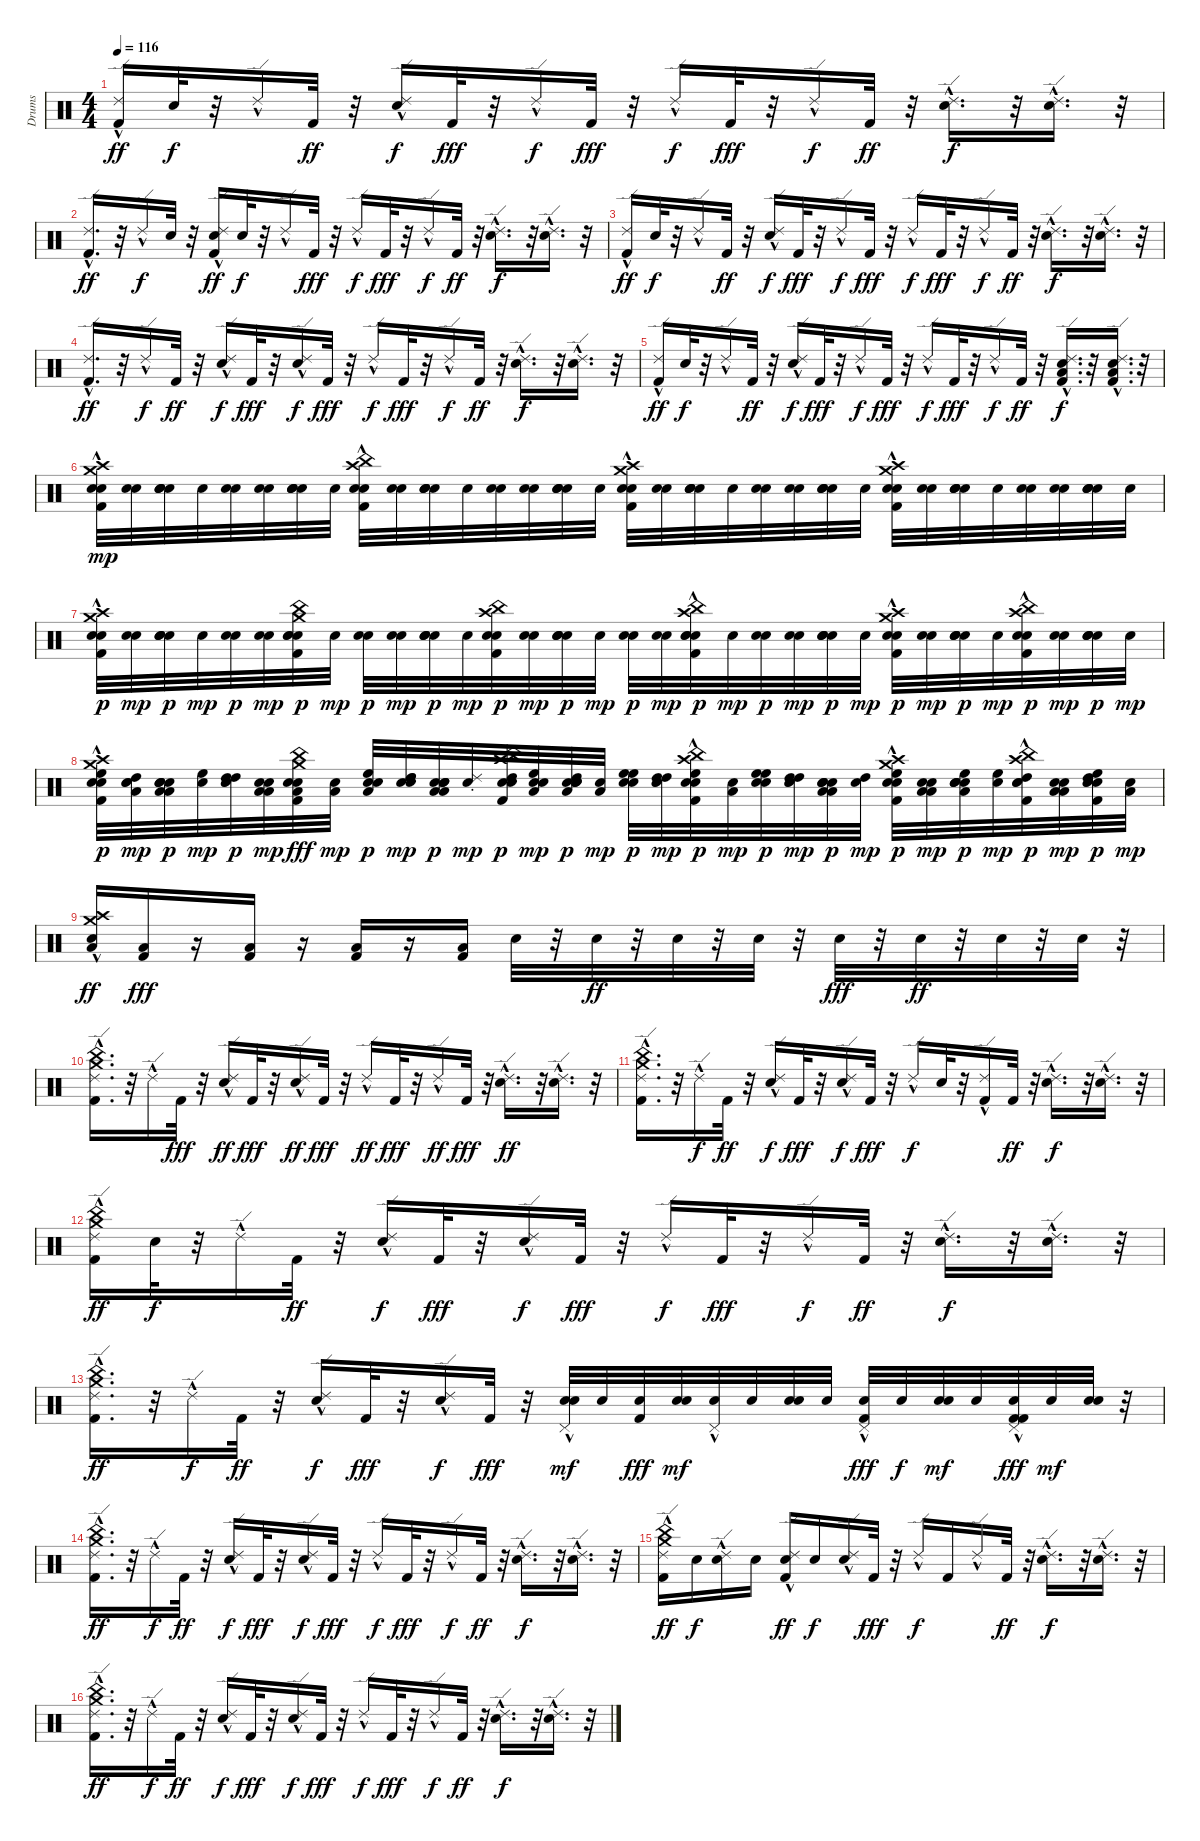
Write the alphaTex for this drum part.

\track ("Drums" "Drums") {instrument percussion}
\staff {score}
\articulation defaults
\ts (4 4)
\tempo 116
\clef neutral
\ks c
("Kick (hit) 2"{hac} "Ride (edge) 2"{hac}).16{dy ff} "Electric Snare (hit)".32{dy f} r.32 "Ride (edge) 2"{hac}.16 "Kick (hit) 2".32{dy ff} r.32 ("Electric Snare (hit)" "Ride (edge) 2"{hac}).16{dy f} "Kick (hit) 2".32{dy fff} r.32 "Ride (edge) 2"{hac}.16{dy f} "Kick (hit) 2".32{dy fff} r.32 "Ride (edge) 2"{hac}.16{dy f} "Kick (hit) 2".32{dy fff} r.32 "Ride (edge) 2"{hac}.16{dy f} "Kick (hit) 2".32{dy ff} r.32 ("Electric Snare (hit)" "Ride (edge) 2"{hac}).16{d dy f} r.32 ("Electric Snare (hit)" "Ride (edge) 2"{hac}).16{d} r.32 |
("Kick (hit) 2"{hac} "Ride (edge) 2"{hac}).16{d dy ff} r.32 "Ride (edge) 2"{hac}.16{dy f} "Electric Snare (hit)".32 r.32 ("Kick (hit) 2" "Electric Snare (hit)" "Ride (edge) 2"{hac}).16{dy ff} "Electric Snare (hit)".32{dy f} r.32 "Ride (edge) 2"{hac}.16 "Kick (hit) 2".32{dy fff} r.32 "Ride (edge) 2"{hac}.16{dy f} "Kick (hit) 2".32{dy fff} r.32 "Ride (edge) 2"{hac}.16{dy f} "Kick (hit) 2".32{dy ff} r.32 ("Electric Snare (hit)" "Ride (edge) 2"{hac}).16{d dy f} r.32 ("Electric Snare (hit)" "Ride (edge) 2"{hac}).16{d} r.32 |
("Kick (hit) 2"{hac} "Ride (edge) 2"{hac}).16{dy ff} "Electric Snare (hit)".32{dy f} r.32 "Ride (edge) 2"{hac}.16 "Kick (hit) 2".32{dy ff} r.32 ("Electric Snare (hit)" "Ride (edge) 2"{hac}).16{dy f} "Kick (hit) 2".32{dy fff} r.32 "Ride (edge) 2"{hac}.16{dy f} "Kick (hit) 2".32{dy fff} r.32 "Ride (edge) 2"{hac}.16{dy f} "Kick (hit) 2".32{dy fff} r.32 "Ride (edge) 2"{hac}.16{dy f} "Kick (hit) 2".32{dy ff} r.32 ("Electric Snare (hit)" "Ride (edge) 2"{hac}).16{d dy f} r.32 ("Electric Snare (hit)" "Ride (edge) 2"{hac}).16{d} r.32 |
("Kick (hit) 2"{hac} "Ride (edge) 2"{hac}).16{d dy ff} r.32 "Ride (edge) 2"{hac}.16{dy f} "Kick (hit) 2".32{dy ff} r.32 ("Electric Snare (hit)" "Ride (edge) 2"{hac}).16{dy f} "Kick (hit) 2".32{dy fff} r.32 ("Electric Snare (hit)" "Ride (edge) 2"{hac}).16{dy f} "Kick (hit) 2".32{dy fff} r.32 "Ride (edge) 2"{hac}.16{dy f} "Kick (hit) 2".32{dy fff} r.32 "Ride (edge) 2"{hac}.16{dy f} "Kick (hit) 2".32{dy ff} r.32 ("Electric Snare (hit)" "Ride (edge) 2"{hac}).16{d dy f} r.32 ("Electric Snare (hit)" "Ride (edge) 2"{hac}).16{d} r.32 |
("Kick (hit) 2"{hac} "Ride (edge) 2"{hac}).16{dy ff} "Electric Snare (hit)".32{dy f} r.32 "Ride (edge) 2"{hac}.16 "Kick (hit) 2".32{dy ff} r.32 ("Electric Snare (hit)" "Ride (edge) 2"{hac}).16{dy f} "Kick (hit) 2".32{dy fff} r.32 "Ride (edge) 2"{hac}.16{dy f} "Kick (hit) 2".32{dy fff} r.32 "Ride (edge) 2"{hac}.16{dy f} "Kick (hit) 2".32{dy fff} r.32 "Ride (edge) 2"{hac}.16{dy f} "Kick (hit) 2".32{dy ff} r.32 ("Low Tom (hit)" "Kick (hit) 2" "Electric Snare (hit)" "Ride (edge) 2"{hac}).16{d dy f} r.32 ("Low Tom (hit)" "Kick (hit) 2" "Electric Snare (hit)" "Ride (edge) 2"{hac}).16{d} r.32 |
("Kick (hit) 2" "Crash medium (hit)"{hac} "Electric Snare (hit)" "Crash high (hit)"{hac} "Electric Snare (hit)").32{dy mp} ("Electric Snare (hit)" "Electric Snare (hit)").32 ("Electric Snare (hit)" "Electric Snare (hit)" "Electric Snare (hit)" "Electric Snare (hit)").32 "Electric Snare (hit)".32 ("Electric Snare (hit)" "Electric Snare (hit)").32 ("Electric Snare (hit)" "Electric Snare (hit)").32 ("Electric Snare (hit)" "Electric Snare (hit)" "Electric Snare (hit)" "Electric Snare (hit)").32 "Electric Snare (hit)".32 ("Kick (hit) 2" "Electric Snare (hit)" "China (hit)"{hac} "Crash high (hit)"{hac} "Electric Snare (hit)").32 ("Electric Snare (hit)" "Electric Snare (hit)").32 ("Electric Snare (hit)" "Electric Snare (hit)" "Electric Snare (hit)" "Electric Snare (hit)").32 "Electric Snare (hit)".32 ("Electric Snare (hit)" "Electric Snare (hit)").32 ("Electric Snare (hit)" "Electric Snare (hit)").32 ("Electric Snare (hit)" "Electric Snare (hit)" "Electric Snare (hit)" "Electric Snare (hit)").32 "Electric Snare (hit)".32 ("Kick (hit) 2" "Electric Snare (hit)" "Crash medium (hit)"{hac} "Crash high (hit)"{hac} "Electric Snare (hit)").32 ("Electric Snare (hit)" "Electric Snare (hit)").32 ("Electric Snare (hit)" "Electric Snare (hit)" "Electric Snare (hit)" "Electric Snare (hit)").32 "Electric Snare (hit)".32 ("Electric Snare (hit)" "Electric Snare (hit)").32 ("Electric Snare (hit)" "Electric Snare (hit)").32 ("Electric Snare (hit)" "Electric Snare (hit)" "Electric Snare (hit)" "Electric Snare (hit)").32 "Electric Snare (hit)".32 ("Kick (hit) 2" "Electric Snare (hit)" "Crash medium (hit)"{hac} "Crash high (hit)"{hac} "Electric Snare (hit)").32 ("Electric Snare (hit)" "Electric Snare (hit)").32 ("Electric Snare (hit)" "Electric Snare (hit)" "Electric Snare (hit)" "Electric Snare (hit)").32 "Electric Snare (hit)".32 ("Electric Snare (hit)" "Electric Snare (hit)").32 ("Electric Snare (hit)" "Electric Snare (hit)").32 ("Electric Snare (hit)" "Electric Snare (hit)" "Electric Snare (hit)" "Electric Snare (hit)").32 "Electric Snare (hit)".32 |
("Crash medium (hit)"{hac} "Crash high (hit)"{hac} "Kick (hit) 2" "Electric Snare (hit)" "Electric Snare (hit)").32{dy p} ("Electric Snare (hit)" "Electric Snare (hit)").32{dy mp} ("Electric Snare (hit)" "Electric Snare (hit)" "Electric Snare (hit)" "Electric Snare (hit)").32{dy p} "Electric Snare (hit)".32{dy mp} ("Electric Snare (hit)" "Electric Snare (hit)").32{dy p} ("Electric Snare (hit)" "Electric Snare (hit)").32{dy mp} ("Electric Snare (hit)" "China (hit)" "Crash medium (hit)" "Kick (hit) 2" "Electric Snare (hit)" "Electric Snare (hit)").32{dy p} "Electric Snare (hit)".32{dy mp} ("Electric Snare (hit)" "Electric Snare (hit)").32{dy p} ("Electric Snare (hit)" "Electric Snare (hit)").32{dy mp} ("Electric Snare (hit)" "Electric Snare (hit)" "Electric Snare (hit)" "Electric Snare (hit)").32{dy p} "Electric Snare (hit)".32{dy mp} ("Crash high (hit)" "China (hit)" "Kick (hit) 2" "Electric Snare (hit)" "Electric Snare (hit)").32{dy p} ("Electric Snare (hit)" "Electric Snare (hit)").32{dy mp} ("Electric Snare (hit)" "Electric Snare (hit)" "Electric Snare (hit)" "Electric Snare (hit)").32{dy p} "Electric Snare (hit)".32{dy mp} ("Electric Snare (hit)" "Electric Snare (hit)").32{dy p} ("Electric Snare (hit)" "Electric Snare (hit)").32{dy mp} ("Electric Snare (hit)" "China (hit)"{hac} "Crash high (hit)"{hac} "Kick (hit) 2" "Electric Snare (hit)" "Electric Snare (hit)").32{dy p} "Electric Snare (hit)".32{dy mp} ("Electric Snare (hit)" "Electric Snare (hit)").32{dy p} ("Electric Snare (hit)" "Electric Snare (hit)").32{dy mp} ("Electric Snare (hit)" "Electric Snare (hit)" "Electric Snare (hit)" "Electric Snare (hit)").32{dy p} "Electric Snare (hit)".32{dy mp} ("Crash medium (hit)"{hac} "Crash high (hit)"{hac} "Kick (hit) 2" "Electric Snare (hit)" "Electric Snare (hit)").32{dy p} ("Electric Snare (hit)" "Electric Snare (hit)").32{dy mp} ("Electric Snare (hit)" "Electric Snare (hit)" "Electric Snare (hit)" "Electric Snare (hit)").32{dy p} "Electric Snare (hit)".32{dy mp} ("China (hit)"{hac} "Crash high (hit)"{hac} "Kick (hit) 2" "Electric Snare (hit)" "Electric Snare (hit)").32{dy p} ("Electric Snare (hit)" "Electric Snare (hit)").32{dy mp} ("Electric Snare (hit)" "Electric Snare (hit)" "Electric Snare (hit)" "Electric Snare (hit)").32{dy p} "Electric Snare (hit)".32{dy mp} |
("Crash medium (hit)"{hac} "Crash high (hit)"{hac} "Kick (hit) 2" "Electric Snare (hit)" "High Floor Tom (hit)" "Electric Snare (hit)").32{dy p} ("Electric Snare (hit)" "High Tom (hit)" "Electric Snare (hit)" "Low Tom (hit)").32{dy mp} ("Electric Snare (hit)" "Low Tom (hit)" "Electric Snare (hit)" "Low Floor Tom (hit)" "Electric Snare (hit)" "Electric Snare (hit)").32{dy p} ("Electric Snare (hit)" "High Floor Tom (hit)").32{dy mp} ("Electric Snare (hit)" "High Tom (hit)" "Electric Snare (hit)" "High Tom (hit)").32{dy p} ("Electric Snare (hit)" "Low Tom (hit)" "Electric Snare (hit)" "Low Tom (hit)").32{dy mp} ("Electric Snare (hit)" "Low Floor Tom (hit)" "China (hit)" "Crash medium (hit)" "Kick (hit) 2" "Electric Snare (hit)").32{dy fff} ("Electric Snare (hit)" "Low Floor Tom (hit)").32{dy mp} ("Electric Snare (hit)" "High Floor Tom (hit)" "Electric Snare (hit)" "Low Floor Tom (hit)").32{dy p} ("Electric Snare (hit)" "High Tom (hit)" "Electric Snare (hit)" "High Tom (hit)").32{dy mp} ("Electric Snare (hit)" "Low Tom (hit)" "Electric Snare (hit)" "Low Tom (hit)" "Electric Snare (hit)" "Electric Snare (hit)").32{dy p} ("Electric Snare (hit)" "Ride (choke) 2").32{dy mp} ("Crash high (hit)" "China (hit)" "Kick (hit) 2" "Electric Snare (hit)" "High Tom (hit)" "Electric Snare (hit)").32{dy p} ("Electric Snare (hit)" "Low Floor Tom (hit)" "Electric Snare (hit)" "High Floor Tom (hit)").32{dy mp} ("Electric Snare (hit)" "Low Tom (hit)" "Electric Snare (hit)" "High Tom (hit)" "Electric Snare (hit)" "Electric Snare (hit)").32{dy p} ("Electric Snare (hit)" "Low Tom (hit)").32{dy mp} ("Electric Snare (hit)" "High Floor Tom (hit)" "Electric Snare (hit)" "High Floor Tom (hit)").32{dy p} ("Electric Snare (hit)" "High Tom (hit)" "Electric Snare (hit)" "High Tom (hit)").32{dy mp} ("Electric Snare (hit)" "High Floor Tom (hit)" "China (hit)"{hac} "Crash high (hit)"{hac} "Kick (hit) 2" "Electric Snare (hit)").32{dy p} ("Electric Snare (hit)" "Low Tom (hit)").32{dy mp} ("Electric Snare (hit)" "High Floor Tom (hit)" "Electric Snare (hit)" "High Floor Tom (hit)").32{dy p} ("Electric Snare (hit)" "High Tom (hit)" "Electric Snare (hit)" "High Tom (hit)").32{dy mp} ("Electric Snare (hit)" "Low Tom (hit)" "Electric Snare (hit)" "Low Floor Tom (hit)" "Electric Snare (hit)" "Electric Snare (hit)").32{dy p} ("Electric Snare (hit)" "High Tom (hit)").32{dy mp} ("Crash medium (hit)"{hac} "Crash high (hit)"{hac} "Kick (hit) 2" "Electric Snare (hit)" "High Floor Tom (hit)" "Electric Snare (hit)").32{dy p} ("Electric Snare (hit)" "Low Floor Tom (hit)" "Electric Snare (hit)" "Low Floor Tom (hit)").32{dy mp} ("Electric Snare (hit)" "High Floor Tom (hit)" "Electric Snare (hit)" "Low Tom (hit)" "Electric Snare (hit)" "Electric Snare (hit)").32{dy p} ("Electric Snare (hit)" "High Floor Tom (hit)").32{dy mp} ("China (hit)"{hac} "Crash high (hit)"{hac} "Kick (hit) 2" "Electric Snare (hit)" "High Tom (hit)" "Electric Snare (hit)").32{dy p} ("Electric Snare (hit)" "Low Floor Tom (hit)" "Electric Snare (hit)" "Low Floor Tom (hit)").32{dy mp} ("Electric Snare (hit)" "High Floor Tom (hit)" "Kick (hit) 2" "Electric Snare (hit)" "High Tom (hit)" "Electric Snare (hit)").32{dy p} ("Electric Snare (hit)" "Low Floor Tom (hit)").32{dy mp} |
("Low Floor Tom (hit)" "Crash medium (hit)"{hac} "Crash high (hit)"{hac} "Electric Snare (hit)").16{dy ff} ("Low Floor Tom (hit)" "Kick (hit) 2").16{dy fff} r.16 ("Low Floor Tom (hit)" "Kick (hit) 2").16 r.16 ("Low Floor Tom (hit)" "Kick (hit) 2").16 r.16 ("Low Floor Tom (hit)" "Kick (hit) 2").16 "Electric Snare (hit)".32 r.32 "Electric Snare (hit)".32{dy ff} r.32 "Electric Snare (hit)".32 r.32 "Electric Snare (hit)".32 r.32 "Electric Snare (hit)".32{dy fff} r.32 "Electric Snare (hit)".32{dy ff} r.32 "Electric Snare (hit)".32 r.32 "Electric Snare (hit)".32 r.32 |
("China (hit)" "Crash medium (hit)" "Kick (hit) 2"{hac} "Ride (edge) 2"{hac}).16{d} r.32 "Ride (edge) 2"{hac}.16 "Kick (hit) 2".32{dy fff} r.32 ("Electric Snare (hit)" "Ride (edge) 2"{hac}).16{dy ff} "Kick (hit) 2".32{dy fff} r.32 ("Electric Snare (hit)" "Ride (edge) 2"{hac}).16{dy ff} "Kick (hit) 2".32{dy fff} r.32 "Ride (edge) 2"{hac}.16{dy ff} "Kick (hit) 2".32{dy fff} r.32 "Ride (edge) 2"{hac}.16{dy ff} "Kick (hit) 2".32{dy fff} r.32 ("Electric Snare (hit)" "Ride (edge) 2"{hac}).16{d dy ff} r.32 ("Electric Snare (hit)" "Ride (edge) 2"{hac}).16{d} r.32 |
("Crash medium (hit)" "China (hit)" "Kick (hit) 2"{hac} "Ride (edge) 2"{hac}).16{d} r.32 "Ride (edge) 2"{hac}.16{dy f} "Kick (hit) 2".32{dy ff} r.32 ("Electric Snare (hit)" "Ride (edge) 2"{hac}).16{dy f} "Kick (hit) 2".32{dy fff} r.32 ("Electric Snare (hit)" "Ride (edge) 2"{hac}).16{dy f} "Kick (hit) 2".32{dy fff} r.32 "Ride (edge) 2"{hac}.16{dy f} "Electric Snare (hit)".32 r.32 ("Kick (hit) 2" "Ride (edge) 2"{hac}).16 "Kick (hit) 2".32{dy ff} r.32 ("Electric Snare (hit)" "Ride (edge) 2"{hac}).16{d dy f} r.32 ("Electric Snare (hit)" "Ride (edge) 2"{hac}).16{d} r.32 |
("Crash medium (hit)" "China (hit)" "Kick (hit) 2"{hac} "Ride (edge) 2"{hac}).16{dy ff} "Electric Snare (hit)".32{dy f} r.32 "Ride (edge) 2"{hac}.16 "Kick (hit) 2".32{dy ff} r.32 ("Electric Snare (hit)" "Ride (edge) 2"{hac}).16{dy f} "Kick (hit) 2".32{dy fff} r.32 ("Electric Snare (hit)" "Ride (edge) 2"{hac}).16{dy f} "Kick (hit) 2".32{dy fff} r.32 "Ride (edge) 2"{hac}.16{dy f} "Kick (hit) 2".32{dy fff} r.32 "Ride (edge) 2"{hac}.16{dy f} "Kick (hit) 2".32{dy ff} r.32 ("Electric Snare (hit)" "Ride (edge) 2"{hac}).16{d dy f} r.32 ("Electric Snare (hit)" "Ride (edge) 2"{hac}).16{d} r.32 |
("Crash medium (hit)" "China (hit)" "Kick (hit) 2"{hac} "Ride (edge) 2"{hac}).16{d dy ff} r.32 "Ride (edge) 2"{hac}.16{dy f} "Kick (hit) 2".32{dy ff} r.32 ("Electric Snare (hit)" "Ride (edge) 2"{hac}).16{dy f} "Kick (hit) 2".32{dy fff} r.32 ("Electric Snare (hit)" "Ride (edge) 2"{hac}).16{dy f} "Kick (hit) 2".32{dy fff} r.32 ("Electric Snare (hit)" "Pedal Hi-Hat (hit)"{hac} "Electric Snare (hit)").32{dy mf} "Electric Snare (hit)".32 ("Electric Snare (hit)" "Kick (hit) 2").32{dy fff} ("Electric Snare (hit)" "Electric Snare (hit)").32{dy mf} ("Electric Snare (hit)" "Pedal Hi-Hat (hit)"{hac}).32 "Electric Snare (hit)".32 ("Electric Snare (hit)" "Electric Snare (hit)").32 "Electric Snare (hit)".32 ("Electric Snare (hit)" "Kick (hit) 2" "Pedal Hi-Hat (hit)"{hac}).32{dy fff} "Electric Snare (hit)".32{dy f} ("Electric Snare (hit)" "Electric Snare (hit)").32{dy mf} "Electric Snare (hit)".32 ("Kick (hit) 2" "Electric Snare (hit)" "Kick (hit) 2" "Pedal Hi-Hat (hit)"{hac}).32{dy fff} "Electric Snare (hit)".32{dy mf} ("Electric Snare (hit)" "Electric Snare (hit)").32 r.32 |
("China (hit)" "Crash medium (hit)" "Kick (hit) 2"{hac} "Ride (edge) 2"{hac}).16{d dy ff} r.32 "Ride (edge) 2"{hac}.16{dy f} "Kick (hit) 2".32{dy ff} r.32 ("Electric Snare (hit)" "Ride (edge) 2"{hac}).16{dy f} "Kick (hit) 2".32{dy fff} r.32 ("Electric Snare (hit)" "Ride (edge) 2"{hac}).16{dy f} "Kick (hit) 2".32{dy fff} r.32 "Ride (edge) 2"{hac}.16{dy f} "Kick (hit) 2".32{dy fff} r.32 "Ride (edge) 2"{hac}.16{dy f} "Kick (hit) 2".32{dy ff} r.32 ("Electric Snare (hit)" "Ride (edge) 2"{hac}).16{d dy f} r.32 ("Electric Snare (hit)" "Ride (edge) 2"{hac}).16{d} r.32 |
("Crash medium (hit)" "China (hit)" "Kick (hit) 2"{hac} "Ride (edge) 2"{hac}).16{dy ff} "Electric Snare (hit)".16{dy f} ("Electric Snare (hit)" "Ride (edge) 2"{hac}).16 "Electric Snare (hit)".16 ("Kick (hit) 2" "Electric Snare (hit)" "Ride (edge) 2"{hac}).16{dy ff} "Electric Snare (hit)".16{dy f} ("Electric Snare (hit)" "Ride (edge) 2"{hac}).16 "Kick (hit) 2".32{dy fff} r.32 "Ride (edge) 2"{hac}.16{dy f} "Kick (hit) 2".16 "Ride (edge) 2"{hac}.16 "Kick (hit) 2".32{dy ff} r.32 ("Electric Snare (hit)" "Ride (edge) 2"{hac}).16{d dy f} r.32 ("Electric Snare (hit)" "Ride (edge) 2"{hac}).16{d} r.32 |
("China (hit)" "Crash medium (hit)" "Kick (hit) 2"{hac} "Ride (edge) 2"{hac}).16{d dy ff} r.32 "Ride (edge) 2"{hac}.16{dy f} "Kick (hit) 2".32{dy ff} r.32 ("Electric Snare (hit)" "Ride (edge) 2"{hac}).16{dy f} "Kick (hit) 2".32{dy fff} r.32 ("Electric Snare (hit)" "Ride (edge) 2"{hac}).16{dy f} "Kick (hit) 2".32{dy fff} r.32 "Ride (edge) 2"{hac}.16{dy f} "Kick (hit) 2".32{dy fff} r.32 "Ride (edge) 2"{hac}.16{dy f} "Kick (hit) 2".32{dy ff} r.32 ("Electric Snare (hit)" "Ride (edge) 2"{hac}).16{d dy f} r.32 ("Electric Snare (hit)" "Ride (edge) 2"{hac}).16{d} r.32
